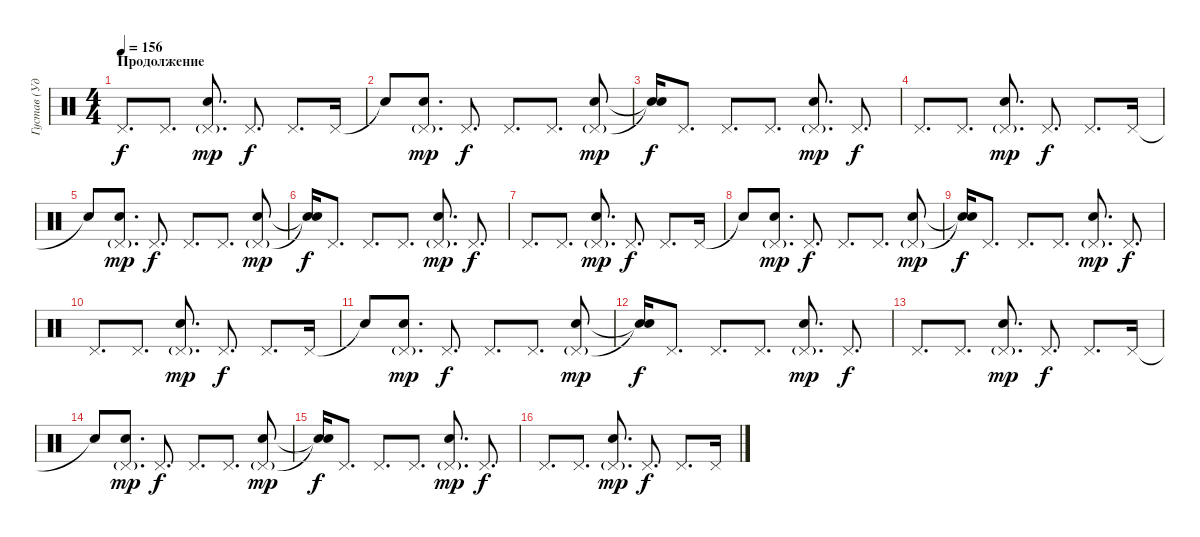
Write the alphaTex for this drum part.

\track ("Густав (Ударные)" "Густав (Уд") {instrument percussion}
\staff {score}
\articulation defaults
\ts (4 4)
\section ("" "Продолжение")
\tempo 156
\clef neutral
\ks c "Pedal Hi-Hat (hit)".8{d dy f} "Pedal Hi-Hat (hit)".8{d}
("Pedal Hi-Hat (hit)"{g} "Electric Snare (hit)").8{d dy mp} "Pedal Hi-Hat (hit)".8{d dy f} "Pedal Hi-Hat (hit)".8{d} "Pedal Hi-Hat (hit)".16 |
"Snare (hit)"{t}.8 ("Pedal Hi-Hat (hit)"{g} "Electric Snare (hit)").8{d dy mp} "Pedal Hi-Hat (hit)".8{d dy f} "Pedal Hi-Hat (hit)".8{d} "Pedal Hi-Hat (hit)".8{d} ("Pedal Hi-Hat (hit)"{g} "Electric Snare (hit)").8{dy mp} |
("Snare (hit)"{t} "Snare (hit)"{t}).16{dy f} "Pedal Hi-Hat (hit)".8{d} "Pedal Hi-Hat (hit)".8{d} "Pedal Hi-Hat (hit)".8{d} ("Pedal Hi-Hat (hit)"{g} "Electric Snare (hit)").8{d dy mp} "Pedal Hi-Hat (hit)".8{d dy f} |
"Pedal Hi-Hat (hit)".8{d} "Pedal Hi-Hat (hit)".8{d} ("Pedal Hi-Hat (hit)"{g} "Electric Snare (hit)").8{d dy mp} "Pedal Hi-Hat (hit)".8{d dy f} "Pedal Hi-Hat (hit)".8{d} "Pedal Hi-Hat (hit)".16 |
"Snare (hit)"{t}.8 ("Pedal Hi-Hat (hit)"{g} "Electric Snare (hit)").8{d dy mp} "Pedal Hi-Hat (hit)".8{d dy f} "Pedal Hi-Hat (hit)".8{d} "Pedal Hi-Hat (hit)".8{d} ("Pedal Hi-Hat (hit)"{g} "Electric Snare (hit)").8{dy mp} |
("Snare (hit)"{t} "Snare (hit)"{t}).16{dy f} "Pedal Hi-Hat (hit)".8{d} "Pedal Hi-Hat (hit)".8{d} "Pedal Hi-Hat (hit)".8{d} ("Pedal Hi-Hat (hit)"{g} "Electric Snare (hit)").8{d dy mp} "Pedal Hi-Hat (hit)".8{d dy f} |
"Pedal Hi-Hat (hit)".8{d} "Pedal Hi-Hat (hit)".8{d} ("Pedal Hi-Hat (hit)"{g} "Electric Snare (hit)").8{d dy mp} "Pedal Hi-Hat (hit)".8{d dy f} "Pedal Hi-Hat (hit)".8{d} "Pedal Hi-Hat (hit)".16 |
"Snare (hit)"{t}.8 ("Pedal Hi-Hat (hit)"{g} "Electric Snare (hit)").8{d dy mp} "Pedal Hi-Hat (hit)".8{d dy f} "Pedal Hi-Hat (hit)".8{d} "Pedal Hi-Hat (hit)".8{d} ("Pedal Hi-Hat (hit)"{g} "Electric Snare (hit)").8{dy mp} |
("Snare (hit)"{t} "Snare (hit)"{t}).16{dy f} "Pedal Hi-Hat (hit)".8{d} "Pedal Hi-Hat (hit)".8{d} "Pedal Hi-Hat (hit)".8{d} ("Pedal Hi-Hat (hit)"{g} "Electric Snare (hit)").8{d dy mp} "Pedal Hi-Hat (hit)".8{d dy f} |
"Pedal Hi-Hat (hit)".8{d} "Pedal Hi-Hat (hit)".8{d} ("Pedal Hi-Hat (hit)"{g} "Electric Snare (hit)").8{d dy mp} "Pedal Hi-Hat (hit)".8{d dy f} "Pedal Hi-Hat (hit)".8{d} "Pedal Hi-Hat (hit)".16 |
"Snare (hit)"{t}.8 ("Pedal Hi-Hat (hit)"{g} "Electric Snare (hit)").8{d dy mp} "Pedal Hi-Hat (hit)".8{d dy f} "Pedal Hi-Hat (hit)".8{d} "Pedal Hi-Hat (hit)".8{d} ("Pedal Hi-Hat (hit)"{g} "Electric Snare (hit)").8{dy mp} |
("Snare (hit)"{t} "Snare (hit)"{t}).16{dy f} "Pedal Hi-Hat (hit)".8{d} "Pedal Hi-Hat (hit)".8{d} "Pedal Hi-Hat (hit)".8{d} ("Pedal Hi-Hat (hit)"{g} "Electric Snare (hit)").8{d dy mp} "Pedal Hi-Hat (hit)".8{d dy f} |
"Pedal Hi-Hat (hit)".8{d} "Pedal Hi-Hat (hit)".8{d} ("Pedal Hi-Hat (hit)"{g} "Electric Snare (hit)").8{d dy mp} "Pedal Hi-Hat (hit)".8{d dy f} "Pedal Hi-Hat (hit)".8{d} "Pedal Hi-Hat (hit)".16 |
"Snare (hit)"{t}.8 ("Pedal Hi-Hat (hit)"{g} "Electric Snare (hit)").8{d dy mp} "Pedal Hi-Hat (hit)".8{d dy f} "Pedal Hi-Hat (hit)".8{d} "Pedal Hi-Hat (hit)".8{d} ("Pedal Hi-Hat (hit)"{g} "Electric Snare (hit)").8{dy mp} |
("Snare (hit)"{t} "Snare (hit)"{t}).16{dy f} "Pedal Hi-Hat (hit)".8{d} "Pedal Hi-Hat (hit)".8{d} "Pedal Hi-Hat (hit)".8{d} ("Pedal Hi-Hat (hit)"{g} "Electric Snare (hit)").8{d dy mp} "Pedal Hi-Hat (hit)".8{d dy f} |
"Pedal Hi-Hat (hit)".8{d} "Pedal Hi-Hat (hit)".8{d} ("Pedal Hi-Hat (hit)"{g} "Electric Snare (hit)").8{d dy mp} "Pedal Hi-Hat (hit)".8{d dy f} "Pedal Hi-Hat (hit)".8{d} "Pedal Hi-Hat (hit)".16
